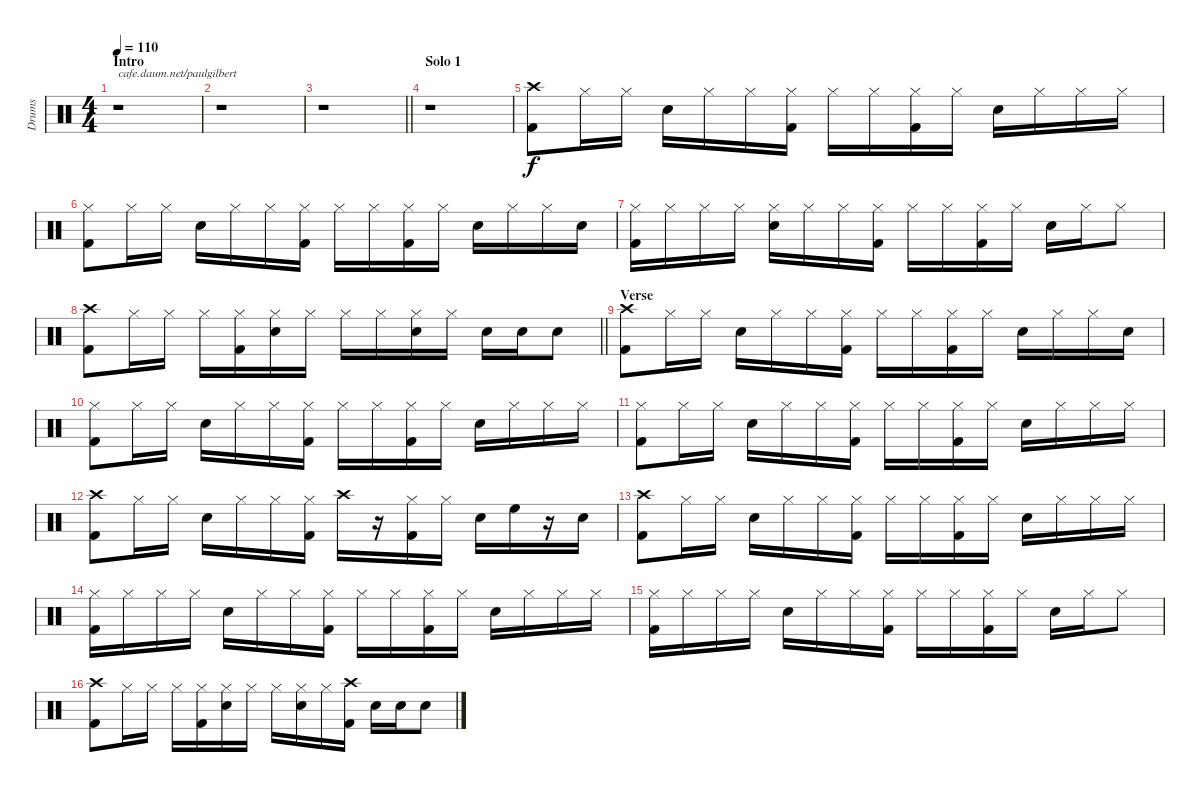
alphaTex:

\track ("Drums" "Drums") {instrument percussion}
\staff {score}
\articulation defaults
\ts (4 4)
\section ("" "Intro")
\tempo 110
\clef neutral
\ks c
r.1{txt "cafe.daum.net/paulgilbert" dy f} |
r.1 |
\barLineRight lightlight
r.1 |
\section ("" "Solo 1")
r.1 |
("Crash high (hit)" "Kick (hit) 2").8 "Hi-Hat (closed)".16 "Hi-Hat (closed)".16 "Snare (hit) 2".16 "Hi-Hat (closed)".16 "Hi-Hat (closed)".16 ("Hi-Hat (closed)" "Kick (hit) 2").16 "Hi-Hat (closed)".16 "Hi-Hat (closed)".16 ("Hi-Hat (closed)" "Kick (hit) 2").16 "Hi-Hat (closed)".16 "Snare (hit) 2".16 "Hi-Hat (closed)".16 "Hi-Hat (closed)".16 "Hi-Hat (closed)".16 |
("Hi-Hat (closed)" "Kick (hit) 2").8 "Hi-Hat (closed)".16 "Hi-Hat (closed)".16 "Snare (hit) 2".16 "Hi-Hat (closed)".16 "Hi-Hat (closed)".16 ("Hi-Hat (closed)" "Kick (hit) 2").16 "Hi-Hat (closed)".16 "Hi-Hat (closed)".16 ("Hi-Hat (closed)" "Kick (hit) 2").16 "Hi-Hat (closed)".16 "Snare (hit) 2".16 "Hi-Hat (closed)".16 "Hi-Hat (closed)".16 "Snare (hit) 2".16 |
("Hi-Hat (closed)" "Kick (hit) 2").16 "Hi-Hat (closed)".16 "Hi-Hat (closed)".16 "Hi-Hat (closed)".16 ("Hi-Hat (closed)" "Snare (hit) 2").16 "Hi-Hat (closed)".16 "Hi-Hat (closed)".16 ("Hi-Hat (closed)" "Kick (hit) 2").16 "Hi-Hat (closed)".16 "Hi-Hat (closed)".16 ("Hi-Hat (closed)" "Kick (hit) 2").16 "Hi-Hat (closed)".16 "Snare (hit) 2".16 "Hi-Hat (closed)".16 "Hi-Hat (closed)".8 |
\barLineRight lightlight
("Crash high (hit)" "Kick (hit) 2").8 "Hi-Hat (closed)".16 "Hi-Hat (closed)".16 "Hi-Hat (closed)".16 ("Hi-Hat (closed)" "Kick (hit) 2").16 ("Hi-Hat (closed)" "Snare (hit) 2").16 "Hi-Hat (closed)".16 "Hi-Hat (closed)".16 "Hi-Hat (closed)".16 ("Hi-Hat (closed)" "Snare (hit) 2").16 "Hi-Hat (closed)".16 "Snare (hit) 2".16 "Snare (hit) 2".16 "Snare (hit) 2".8 |
\section ("" "Verse")
("Crash high (hit)" "Kick (hit) 2").8 "Hi-Hat (closed)".16 "Hi-Hat (closed)".16 "Snare (hit) 2".16 "Hi-Hat (closed)".16 "Hi-Hat (closed)".16 ("Hi-Hat (closed)" "Kick (hit) 2").16 "Hi-Hat (closed)".16 "Hi-Hat (closed)".16 ("Hi-Hat (closed)" "Kick (hit) 2").16 "Hi-Hat (closed)".16 "Snare (hit) 2".16 "Hi-Hat (closed)".16 "Hi-Hat (closed)".16 "Snare (hit) 2".16 |
("Hi-Hat (closed)" "Kick (hit) 2").8 "Hi-Hat (closed)".16 "Hi-Hat (closed)".16 "Snare (hit) 2".16 "Hi-Hat (closed)".16 "Hi-Hat (closed)".16 ("Hi-Hat (closed)" "Kick (hit) 2").16 "Hi-Hat (closed)".16 "Hi-Hat (closed)".16 ("Hi-Hat (closed)" "Kick (hit) 2").16 "Hi-Hat (closed)".16 "Snare (hit) 2".16 "Hi-Hat (closed)".16 "Hi-Hat (closed)".16 "Hi-Hat (closed)".16 |
("Hi-Hat (closed)" "Kick (hit) 2").8 "Hi-Hat (closed)".16 "Hi-Hat (closed)".16 "Snare (hit) 2".16 "Hi-Hat (closed)".16 "Hi-Hat (closed)".16 ("Hi-Hat (closed)" "Kick (hit) 2").16 "Hi-Hat (closed)".16 "Hi-Hat (closed)".16 ("Hi-Hat (closed)" "Kick (hit) 2").16 "Hi-Hat (closed)".16 "Snare (hit) 2".16 "Hi-Hat (closed)".16 "Hi-Hat (closed)".16 "Hi-Hat (closed)".16 |
("Crash high (hit)" "Kick (hit) 2").8 "Hi-Hat (closed)".16 "Hi-Hat (closed)".16 "Snare (hit) 2".16 "Hi-Hat (closed)".16 "Hi-Hat (closed)".16 ("Hi-Hat (closed)" "Kick (hit) 2").16 "Crash high (hit)".16 r.16 ("Hi-Hat (closed)" "Kick (hit) 2").16 "Hi-Hat (closed)".16 "Snare (hit) 2".16 "High Floor Tom (hit)".16 r.16 "Snare (hit) 2".16 |
("Crash high (hit)" "Kick (hit) 2").8 "Hi-Hat (closed)".16 "Hi-Hat (closed)".16 "Snare (hit) 2".16 "Hi-Hat (closed)".16 "Hi-Hat (closed)".16 ("Hi-Hat (closed)" "Kick (hit) 2").16 "Hi-Hat (closed)".16 "Hi-Hat (closed)".16 ("Hi-Hat (closed)" "Kick (hit) 2").16 "Hi-Hat (closed)".16 "Snare (hit) 2".16 "Hi-Hat (closed)".16 "Hi-Hat (closed)".16 "Hi-Hat (closed)".16 |
("Hi-Hat (closed)" "Kick (hit) 2").16 "Hi-Hat (closed)".16 "Hi-Hat (closed)".16 "Hi-Hat (closed)".16 "Snare (hit) 2".16 "Hi-Hat (closed)".16 "Hi-Hat (closed)".16 ("Hi-Hat (closed)" "Kick (hit) 2").16 "Hi-Hat (closed)".16 "Hi-Hat (closed)".16 ("Hi-Hat (closed)" "Kick (hit) 2").16 "Hi-Hat (closed)".16 "Snare (hit) 2".16 "Hi-Hat (closed)".16 "Hi-Hat (closed)".16 "Hi-Hat (closed)".16 |
("Hi-Hat (closed)" "Kick (hit) 2").16 "Hi-Hat (closed)".16 "Hi-Hat (closed)".16 "Hi-Hat (closed)".16 "Snare (hit) 2".16 "Hi-Hat (closed)".16 "Hi-Hat (closed)".16 ("Hi-Hat (closed)" "Kick (hit) 2").16 "Hi-Hat (closed)".16 "Hi-Hat (closed)".16 ("Hi-Hat (closed)" "Kick (hit) 2").16 "Hi-Hat (closed)".16 "Snare (hit) 2".16 "Hi-Hat (closed)".16 "Hi-Hat (closed)".8 |
("Crash high (hit)" "Kick (hit) 2").8 "Hi-Hat (closed)".16 "Hi-Hat (closed)".16 "Hi-Hat (closed)".16 ("Hi-Hat (closed)" "Kick (hit) 2").16 ("Hi-Hat (closed)" "Snare (hit) 2").16 "Hi-Hat (closed)".16 "Hi-Hat (closed)".16 ("Hi-Hat (closed)" "Snare (hit) 2").16 "Hi-Hat (closed)".16 ("Crash high (hit)" "Kick (hit) 2").16 "Snare (hit) 2".16 "Snare (hit) 2".16 "Snare (hit) 2".8
